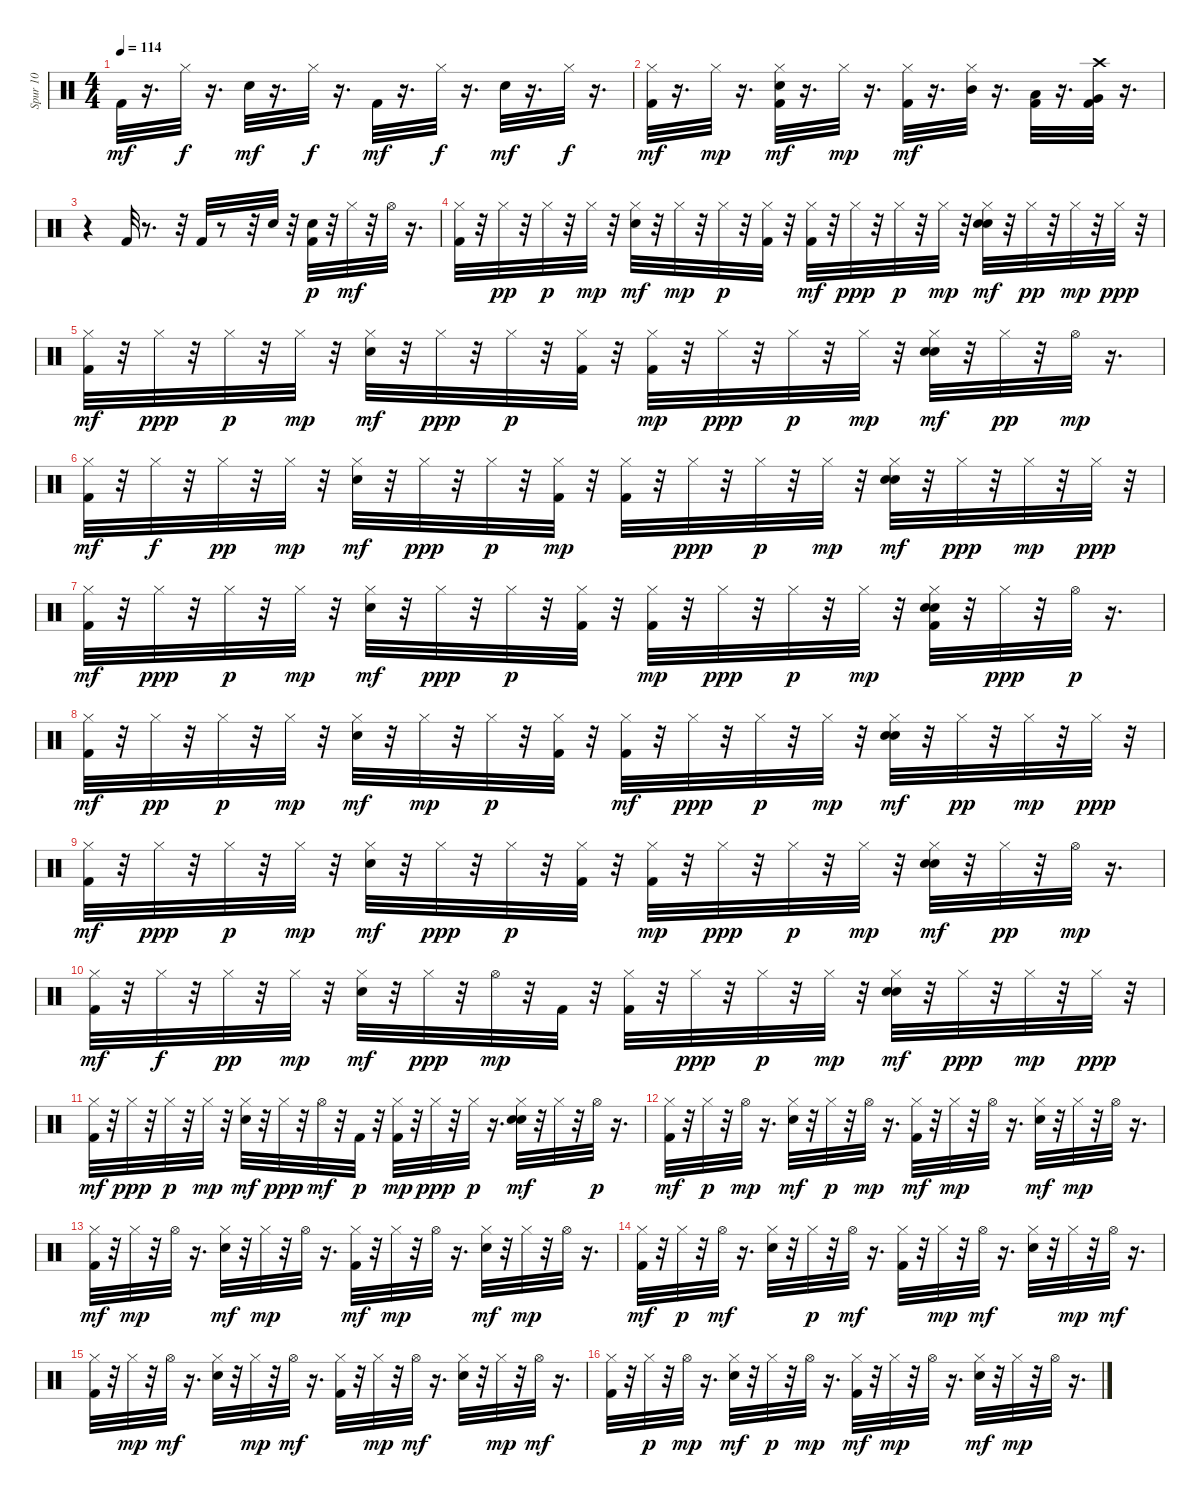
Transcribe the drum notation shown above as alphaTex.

\track ("Spur 10" "Spur 10") {instrument percussion}
\staff {score}
\articulation defaults
\ts (4 4)
\tempo 114
\clef neutral
\ks c "Kick (hit) 2".32{dy mf}
r.16{d} "Hi-Hat (closed)".32{dy f} r.16{d} "Electric Snare (hit)".32{dy mf} r.16{d} "Hi-Hat (closed)".32{dy f} r.16{d} "Kick (hit) 2".32{dy mf} r.16{d} "Hi-Hat (closed)".32{dy f} r.16{d} "Electric Snare (hit)".32{dy mf} r.16{d} "Hi-Hat (closed)".32{dy f} r.16{d} |
("Kick (hit) 2" "Hi-Hat (closed)").32{dy mf} r.16{d} "Hi-Hat (closed)".32{dy mp} r.16{d} ("Kick (hit) 2" "Electric Snare (hit)" "Hi-Hat (closed)").32{dy mf} r.16{d} "Hi-Hat (closed)".32{dy mp} r.16{d} ("Kick (hit) 2" "Hi-Hat (closed)").32{dy mf} r.16{d} ("Hi-Hat (closed)" "Mid Tom (hit)").32 r.16{d} ("Kick (hit) 2" "Low Tom (hit)").32 r.16{d} ("Kick (hit) 2" "Very Low Tom (hit)" "Crash high (hit)").32 r.16{d} |
r.4 "Kick (hit) 2".32 r.8{d} r.32 "Kick (hit) 2".32 r.8 r.32 "Electric Snare (hit)".32 r.32 ("Kick (hit) 2" "Electric Snare (hit)").32{dy p} r.32 "Hi-Hat (closed)".32{dy mf} r.32 "Hi-Hat (open)".32 r.16{d} |
("Hi-Hat (closed)" "Kick (hit) 2").32 r.32 "Hi-Hat (closed)".32{dy pp} r.32 "Hi-Hat (closed)".32{dy p} r.32 "Hi-Hat (closed)".32{dy mp} r.32 ("Hi-Hat (closed)" "Electric Snare (hit)").32{dy mf} r.32 "Hi-Hat (closed)".32{dy mp} r.32 "Hi-Hat (closed)".32{dy p} r.32 ("Hi-Hat (closed)" "Kick (hit) 2").32 r.32 ("Hi-Hat (closed)" "Kick (hit) 2").32{dy mf} r.32 "Hi-Hat (closed)".32{dy ppp} r.32 "Hi-Hat (closed)".32{dy p} r.32 "Hi-Hat (closed)".32{dy mp} r.32 ("Hand Clap (hit)" "Hi-Hat (closed)" "Electric Snare (hit)").32{dy mf} r.32 "Hi-Hat (closed)".32{dy pp} r.32 "Hi-Hat (closed)".32{dy mp} r.32 "Hi-Hat (closed)".32{dy ppp} r.32 |
("Hi-Hat (closed)" "Kick (hit) 2").32{dy mf} r.32 "Hi-Hat (closed)".32{dy ppp} r.32 "Hi-Hat (closed)".32{dy p} r.32 "Hi-Hat (closed)".32{dy mp} r.32 ("Hi-Hat (closed)" "Electric Snare (hit)").32{dy mf} r.32 "Hi-Hat (closed)".32{dy ppp} r.32 "Hi-Hat (closed)".32{dy p} r.32 ("Hi-Hat (closed)" "Kick (hit) 2").32 r.32 ("Hi-Hat (closed)" "Kick (hit) 2").32{dy mp} r.32 "Hi-Hat (closed)".32{dy ppp} r.32 "Hi-Hat (closed)".32{dy p} r.32 "Hi-Hat (closed)".32{dy mp} r.32 ("Hand Clap (hit)" "Hi-Hat (closed)" "Electric Snare (hit)").32{dy mf} r.32 "Hi-Hat (closed)".32{dy pp} r.32 "Hi-Hat (open)".32{dy mp} r.16{d} |
("Hi-Hat (closed)" "Kick (hit) 2").32{dy mf} r.32 "Hi-Hat (closed)".32{dy f} r.32 "Hi-Hat (closed)".32{dy pp} r.32 "Hi-Hat (closed)".32{dy mp} r.32 ("Hi-Hat (closed)" "Electric Snare (hit)").32{dy mf} r.32 "Hi-Hat (closed)".32{dy ppp} r.32 "Hi-Hat (closed)".32{dy p} r.32 ("Hi-Hat (closed)" "Kick (hit) 2").32{dy mp} r.32 ("Hi-Hat (closed)" "Kick (hit) 2").32 r.32 "Hi-Hat (closed)".32{dy ppp} r.32 "Hi-Hat (closed)".32{dy p} r.32 "Hi-Hat (closed)".32{dy mp} r.32 ("Hand Clap (hit)" "Hi-Hat (closed)" "Electric Snare (hit)").32{dy mf} r.32 "Hi-Hat (closed)".32{dy ppp} r.32 "Hi-Hat (closed)".32{dy mp} r.32 "Hi-Hat (closed)".32{dy ppp} r.32 |
("Hi-Hat (closed)" "Kick (hit) 2").32{dy mf} r.32 "Hi-Hat (closed)".32{dy ppp} r.32 "Hi-Hat (closed)".32{dy p} r.32 "Hi-Hat (closed)".32{dy mp} r.32 ("Hi-Hat (closed)" "Electric Snare (hit)").32{dy mf} r.32 "Hi-Hat (closed)".32{dy ppp} r.32 "Hi-Hat (closed)".32{dy p} r.32 ("Hi-Hat (closed)" "Kick (hit) 2").32 r.32 ("Hi-Hat (closed)" "Kick (hit) 2").32{dy mp} r.32 "Hi-Hat (closed)".32{dy ppp} r.32 "Hi-Hat (closed)".32{dy p} r.32 "Hi-Hat (closed)".32{dy mp} r.32 ("Hand Clap (hit)" "Hi-Hat (closed)" "Electric Snare (hit)" "Kick (hit) 2").32 r.32 "Hi-Hat (closed)".32{dy ppp} r.32 "Hi-Hat (open)".32{dy p} r.16{d} |
("Hi-Hat (closed)" "Kick (hit) 2").32{dy mf} r.32 "Hi-Hat (closed)".32{dy pp} r.32 "Hi-Hat (closed)".32{dy p} r.32 "Hi-Hat (closed)".32{dy mp} r.32 ("Hi-Hat (closed)" "Electric Snare (hit)").32{dy mf} r.32 "Hi-Hat (closed)".32{dy mp} r.32 "Hi-Hat (closed)".32{dy p} r.32 ("Hi-Hat (closed)" "Kick (hit) 2").32 r.32 ("Hi-Hat (closed)" "Kick (hit) 2").32{dy mf} r.32 "Hi-Hat (closed)".32{dy ppp} r.32 "Hi-Hat (closed)".32{dy p} r.32 "Hi-Hat (closed)".32{dy mp} r.32 ("Hand Clap (hit)" "Hi-Hat (closed)" "Electric Snare (hit)").32{dy mf} r.32 "Hi-Hat (closed)".32{dy pp} r.32 "Hi-Hat (closed)".32{dy mp} r.32 "Hi-Hat (closed)".32{dy ppp} r.32 |
("Hi-Hat (closed)" "Kick (hit) 2").32{dy mf} r.32 "Hi-Hat (closed)".32{dy ppp} r.32 "Hi-Hat (closed)".32{dy p} r.32 "Hi-Hat (closed)".32{dy mp} r.32 ("Hi-Hat (closed)" "Electric Snare (hit)").32{dy mf} r.32 "Hi-Hat (closed)".32{dy ppp} r.32 "Hi-Hat (closed)".32{dy p} r.32 ("Hi-Hat (closed)" "Kick (hit) 2").32 r.32 ("Hi-Hat (closed)" "Kick (hit) 2").32{dy mp} r.32 "Hi-Hat (closed)".32{dy ppp} r.32 "Hi-Hat (closed)".32{dy p} r.32 "Hi-Hat (closed)".32{dy mp} r.32 ("Hand Clap (hit)" "Hi-Hat (closed)" "Electric Snare (hit)").32{dy mf} r.32 "Hi-Hat (closed)".32{dy pp} r.32 "Hi-Hat (open)".32{dy mp} r.16{d} |
("Hi-Hat (closed)" "Kick (hit) 2").32{dy mf} r.32 "Hi-Hat (closed)".32{dy f} r.32 "Hi-Hat (closed)".32{dy pp} r.32 "Hi-Hat (closed)".32{dy mp} r.32 ("Hi-Hat (closed)" "Electric Snare (hit)").32{dy mf} r.32 "Hi-Hat (closed)".32{dy ppp} r.32 "Hi-Hat (open)".32{dy mp} r.32 "Kick (hit) 2".32 r.32 ("Hi-Hat (closed)" "Kick (hit) 2").32 r.32 "Hi-Hat (closed)".32{dy ppp} r.32 "Hi-Hat (closed)".32{dy p} r.32 "Hi-Hat (closed)".32{dy mp} r.32 ("Hand Clap (hit)" "Hi-Hat (closed)" "Electric Snare (hit)").32{dy mf} r.32 "Hi-Hat (closed)".32{dy ppp} r.32 "Hi-Hat (closed)".32{dy mp} r.32 "Hi-Hat (closed)".32{dy ppp} r.32 |
("Hi-Hat (closed)" "Kick (hit) 2").32{dy mf} r.32 "Hi-Hat (closed)".32{dy ppp} r.32 "Hi-Hat (closed)".32{dy p} r.32 "Hi-Hat (closed)".32{dy mp} r.32 ("Hi-Hat (closed)" "Electric Snare (hit)").32{dy mf} r.32 "Hi-Hat (closed)".32{dy ppp} r.32 "Hi-Hat (open)".32{dy mf} r.32 "Kick (hit) 2".32{dy p} r.32 ("Hi-Hat (closed)" "Kick (hit) 2").32{dy mp} r.32 "Hi-Hat (closed)".32{dy ppp} r.32 "Hi-Hat (closed)".32{dy p} r.16{d} ("Electric Snare (hit)" "Hand Clap (hit)" "Hi-Hat (closed)").32{dy mf} r.32 "Hi-Hat (closed)".32 r.32 "Hi-Hat (open)".32{dy p} r.16{d} |
("Hi-Hat (closed)" "Kick (hit) 2").32{dy mf} r.32 "Hi-Hat (closed)".32{dy p} r.32 "Hi-Hat (open)".32{dy mp} r.16{d} ("Hi-Hat (closed)" "Electric Snare (hit)").32{dy mf} r.32 "Hi-Hat (closed)".32{dy p} r.32 "Hi-Hat (open)".32{dy mp} r.16{d} ("Hi-Hat (closed)" "Kick (hit) 2").32{dy mf} r.32 "Hi-Hat (closed)".32{dy mp} r.32 "Hi-Hat (open)".32 r.16{d} ("Hi-Hat (closed)" "Electric Snare (hit)").32{dy mf} r.32 "Hi-Hat (closed)".32{dy mp} r.32 "Hi-Hat (open)".32 r.16{d} |
("Hi-Hat (closed)" "Kick (hit) 2").32{dy mf} r.32 "Hi-Hat (closed)".32{dy mp} r.32 "Hi-Hat (open)".32 r.16{d} ("Hi-Hat (closed)" "Electric Snare (hit)").32{dy mf} r.32 "Hi-Hat (closed)".32{dy mp} r.32 "Hi-Hat (open)".32 r.16{d} ("Hi-Hat (closed)" "Kick (hit) 2").32{dy mf} r.32 "Hi-Hat (closed)".32{dy mp} r.32 "Hi-Hat (open)".32 r.16{d} ("Hi-Hat (closed)" "Electric Snare (hit)").32{dy mf} r.32 "Hi-Hat (closed)".32{dy mp} r.32 "Hi-Hat (open)".32 r.16{d} |
("Hi-Hat (closed)" "Kick (hit) 2").32{dy mf} r.32 "Hi-Hat (closed)".32{dy p} r.32 "Hi-Hat (open)".32{dy mf} r.16{d} ("Hi-Hat (closed)" "Electric Snare (hit)").32 r.32 "Hi-Hat (closed)".32{dy p} r.32 "Hi-Hat (open)".32{dy mf} r.16{d} ("Hi-Hat (closed)" "Kick (hit) 2").32 r.32 "Hi-Hat (closed)".32{dy mp} r.32 "Hi-Hat (open)".32{dy mf} r.16{d} ("Hi-Hat (closed)" "Electric Snare (hit)").32 r.32 "Hi-Hat (closed)".32{dy mp} r.32 "Hi-Hat (open)".32{dy mf} r.16{d} |
("Hi-Hat (closed)" "Kick (hit) 2").32 r.32 "Hi-Hat (closed)".32{dy mp} r.32 "Hi-Hat (open)".32{dy mf} r.16{d} ("Hi-Hat (closed)" "Electric Snare (hit)").32 r.32 "Hi-Hat (closed)".32{dy mp} r.32 "Hi-Hat (open)".32{dy mf} r.16{d} ("Hi-Hat (closed)" "Kick (hit) 2").32 r.32 "Hi-Hat (closed)".32{dy mp} r.32 "Hi-Hat (open)".32{dy mf} r.16{d} ("Hi-Hat (closed)" "Electric Snare (hit)").32 r.32 "Hi-Hat (closed)".32{dy mp} r.32 "Hi-Hat (open)".32{dy mf} r.16{d} |
("Hi-Hat (closed)" "Kick (hit) 2").32 r.32 "Hi-Hat (closed)".32{dy p} r.32 "Hi-Hat (open)".32{dy mp} r.16{d} ("Hi-Hat (closed)" "Electric Snare (hit)").32{dy mf} r.32 "Hi-Hat (closed)".32{dy p} r.32 "Hi-Hat (open)".32{dy mp} r.16{d} ("Hi-Hat (closed)" "Kick (hit) 2").32{dy mf} r.32 "Hi-Hat (closed)".32{dy mp} r.32 "Hi-Hat (open)".32 r.16{d} ("Hi-Hat (closed)" "Electric Snare (hit)").32{dy mf} r.32 "Hi-Hat (closed)".32{dy mp} r.32 "Hi-Hat (open)".32 r.16{d}
